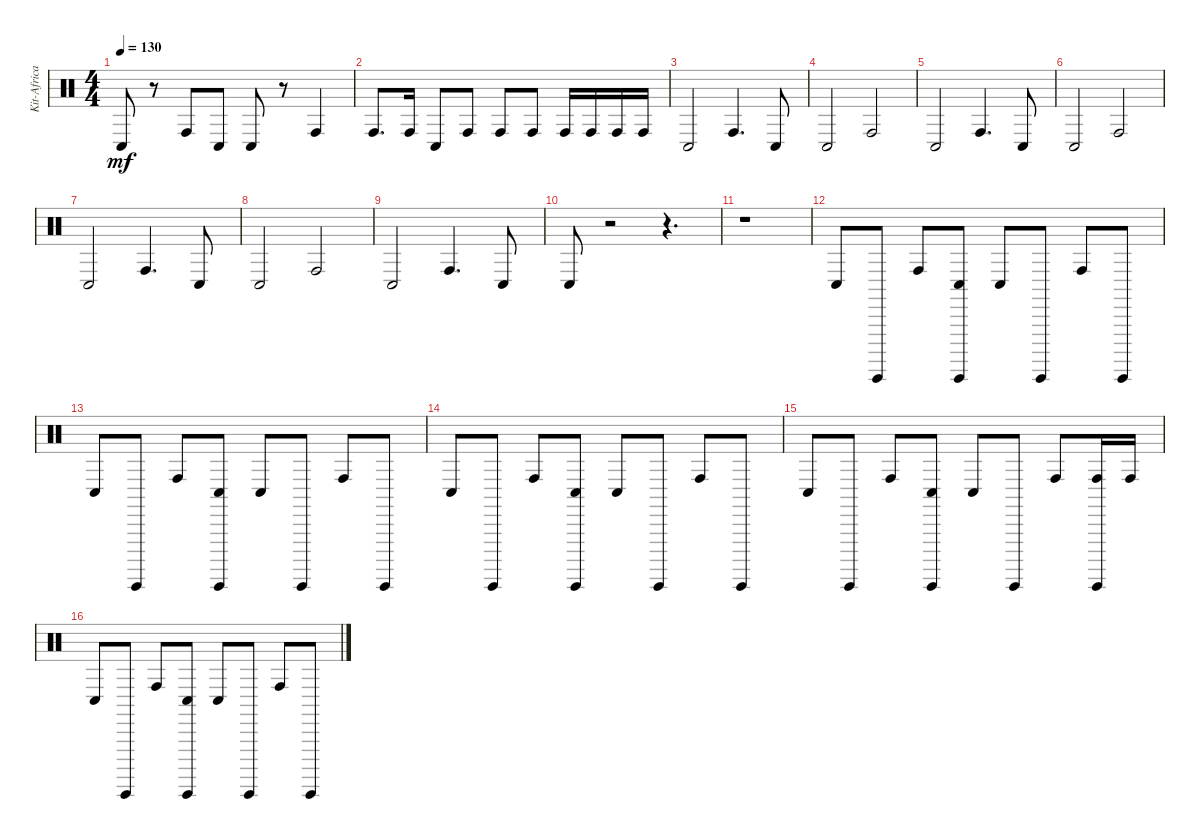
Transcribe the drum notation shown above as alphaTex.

\track ("Kit-Africa" "Kit-Africa") {instrument percussion}
\staff {score}
\articulation defaults
\ts (4 4)
\tempo 130
\clef neutral
\ks c "Conga low (hit)".8{dy mf}
r.8 "Conga high (hit)".8 "Conga low (hit)".8 "Conga low (hit)".8 r.8 "Conga high (hit)".4 |
"Conga high (hit)".8{d} "Conga high (hit)".16 "Conga low (hit)".8 "Conga high (hit)".8 "Conga high (hit)".8 "Conga high (hit)".8 "Conga high (hit)".16 "Conga high (hit)".16 "Conga high (hit)".16 "Conga high (hit)".16 |
"Conga low (hit)".2 "Conga high (hit)".4{d} "Conga low (hit)".8 |
"Conga low (hit)".2 "Conga high (hit)".2 |
"Conga low (hit)".2 "Conga high (hit)".4{d} "Conga low (hit)".8 |
"Conga low (hit)".2 "Conga high (hit)".2 |
"Conga low (hit)".2 "Conga high (hit)".4{d} "Conga low (hit)".8 |
"Conga low (hit)".2 "Conga high (hit)".2 |
"Conga low (hit)".2 "Conga high (hit)".4{d} "Conga low (hit)".8 |
"Conga low (hit)".8 r.2 r.4{d} |
r.1 |
"Conga low (hit)".8 "Guiro (hit)".8 "Conga high (hit)".8 ("Conga low (hit)" "Guiro (hit)").8 "Conga low (hit)".8 "Guiro (hit)".8 "Conga high (hit)".8 "Guiro (hit)".8 |
"Conga low (hit)".8 "Guiro (hit)".8 "Conga high (hit)".8 ("Conga low (hit)" "Guiro (hit)").8 "Conga low (hit)".8 "Guiro (hit)".8 "Conga high (hit)".8 "Guiro (hit)".8 |
"Conga low (hit)".8 "Guiro (hit)".8 "Conga high (hit)".8 ("Conga low (hit)" "Guiro (hit)").8 "Conga low (hit)".8 "Guiro (hit)".8 "Conga high (hit)".8 "Guiro (hit)".8 |
"Conga low (hit)".8 "Guiro (hit)".8 "Conga high (hit)".8 ("Conga low (hit)" "Guiro (hit)").8 "Conga low (hit)".8 "Guiro (hit)".8 "Conga high (hit)".8 ("Conga high (hit)" "Guiro (hit)").16 "Conga high (hit)".16 |
"Conga low (hit)".8 "Guiro (hit)".8 "Conga high (hit)".8 ("Conga low (hit)" "Guiro (hit)").8 "Conga low (hit)".8 "Guiro (hit)".8 "Conga high (hit)".8 "Guiro (hit)".8
